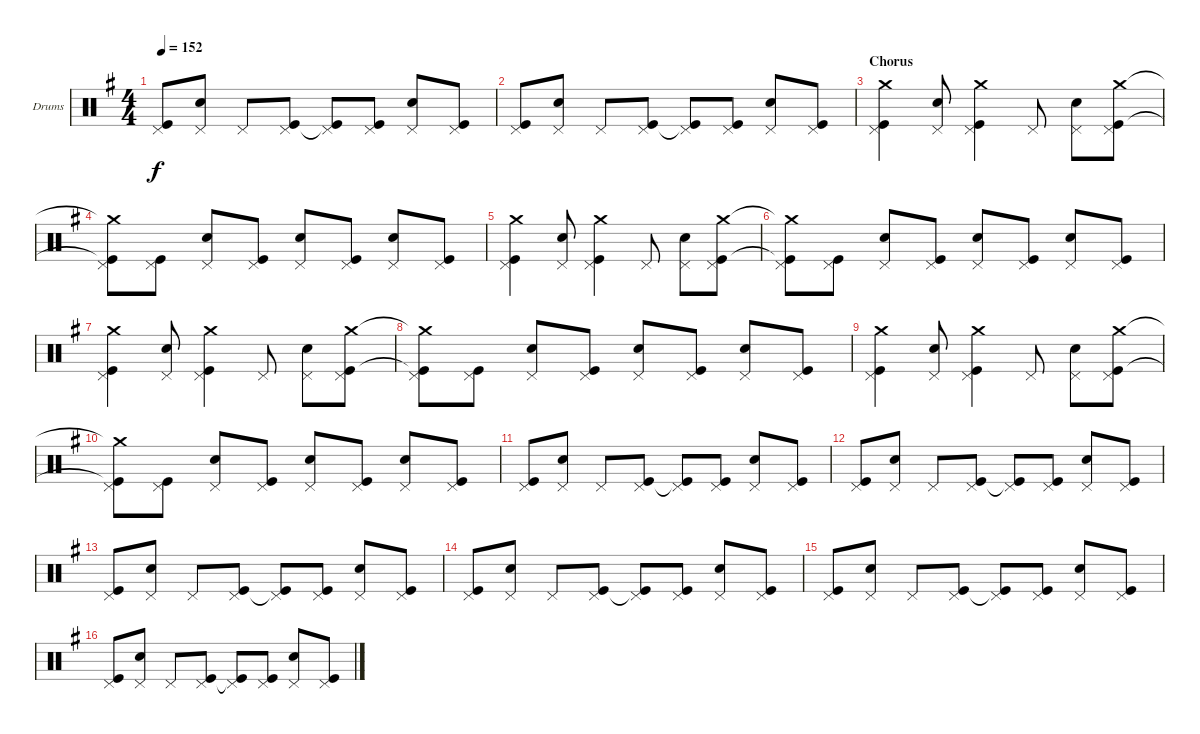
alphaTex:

\defaultSystemsLayout 4
\bracketExtendMode groupsimilarinstruments
\firstSystemTrackNameOrientation horizontal
\otherSystemsTrackNameOrientation horizontal
\track ("Drumkit" "Drums") {instrument percussion}
\staff {score}
\articulation defaults
\ts (4 4)
\tempo 152
\clef neutral
\scale
0.957125
\ks g
("Kick (hit)" "Pedal Hi-Hat (hit)").8{dy f} ("Snare (hit) 2" "Pedal Hi-Hat (hit)").8 "Pedal Hi-Hat (hit)".8 ("Kick (hit)" "Pedal Hi-Hat (hit)").8 ("Kick (hit)"{t} "Pedal Hi-Hat (hit)").8 ("Kick (hit)" "Pedal Hi-Hat (hit)").8 ("Snare (hit) 2" "Pedal Hi-Hat (hit)").8 ("Kick (hit)" "Pedal Hi-Hat (hit)").8 |
\scale
0.957125 ("Kick (hit)" "Pedal Hi-Hat (hit)").8 ("Snare (hit) 2" "Pedal Hi-Hat (hit)").8 "Pedal Hi-Hat (hit)".8 ("Kick (hit)" "Pedal Hi-Hat (hit)").8 ("Kick (hit)"{t} "Pedal Hi-Hat (hit)").8 ("Kick (hit)" "Pedal Hi-Hat (hit)").8 ("Snare (hit) 2" "Pedal Hi-Hat (hit)").8 ("Kick (hit)" "Pedal Hi-Hat (hit)").8 |
\section ("" "Chorus")
\scale
1.08575 ("Kick (hit)" "Crash medium (hit)" "Pedal Hi-Hat (hit)").4 ("Snare (hit) 2" "Pedal Hi-Hat (hit)").8 ("Kick (hit)" "Crash medium (hit)" "Pedal Hi-Hat (hit)").4 "Pedal Hi-Hat (hit)".8 ("Snare (hit) 2" "Pedal Hi-Hat (hit)").8 ("Kick (hit)" "Crash medium (hit)" "Pedal Hi-Hat (hit)").8 |
\scale
0.957125 ("Kick (hit)"{t} "Crash medium (hit)"{t} "Pedal Hi-Hat (hit)").8 ("Kick (hit)" "Pedal Hi-Hat (hit)").8 ("Snare (hit) 2" "Pedal Hi-Hat (hit)").8 ("Kick (hit)" "Pedal Hi-Hat (hit)").8 ("Snare (hit) 2" "Pedal Hi-Hat (hit)").8 ("Kick (hit)" "Pedal Hi-Hat (hit)").8 ("Snare (hit) 2" "Pedal Hi-Hat (hit)").8 ("Kick (hit)" "Pedal Hi-Hat (hit)").8 |
\scale
0.957125 ("Kick (hit)" "Crash medium (hit)" "Pedal Hi-Hat (hit)").4 ("Snare (hit) 2" "Pedal Hi-Hat (hit)").8 ("Kick (hit)" "Crash medium (hit)" "Pedal Hi-Hat (hit)").4 "Pedal Hi-Hat (hit)".8 ("Snare (hit) 2" "Pedal Hi-Hat (hit)").8 ("Kick (hit)" "Crash medium (hit)" "Pedal Hi-Hat (hit)").8 |
\scale
1.08575 ("Kick (hit)"{t} "Crash medium (hit)"{t} "Pedal Hi-Hat (hit)").8 ("Kick (hit)" "Pedal Hi-Hat (hit)").8 ("Snare (hit) 2" "Pedal Hi-Hat (hit)").8 ("Kick (hit)" "Pedal Hi-Hat (hit)").8 ("Snare (hit) 2" "Pedal Hi-Hat (hit)").8 ("Kick (hit)" "Pedal Hi-Hat (hit)").8 ("Snare (hit) 2" "Pedal Hi-Hat (hit)").8 ("Kick (hit)" "Pedal Hi-Hat (hit)").8 |
\scale
0.957125 ("Kick (hit)" "Crash medium (hit)" "Pedal Hi-Hat (hit)").4 ("Snare (hit) 2" "Pedal Hi-Hat (hit)").8 ("Kick (hit)" "Crash medium (hit)" "Pedal Hi-Hat (hit)").4 "Pedal Hi-Hat (hit)".8 ("Snare (hit) 2" "Pedal Hi-Hat (hit)").8 ("Kick (hit)" "Crash medium (hit)" "Pedal Hi-Hat (hit)").8 |
\scale
0.957125 ("Kick (hit)"{t} "Crash medium (hit)"{t} "Pedal Hi-Hat (hit)").8 ("Kick (hit)" "Pedal Hi-Hat (hit)").8 ("Snare (hit) 2" "Pedal Hi-Hat (hit)").8 ("Kick (hit)" "Pedal Hi-Hat (hit)").8 ("Snare (hit) 2" "Pedal Hi-Hat (hit)").8 ("Kick (hit)" "Pedal Hi-Hat (hit)").8 ("Snare (hit) 2" "Pedal Hi-Hat (hit)").8 ("Kick (hit)" "Pedal Hi-Hat (hit)").8 |
\scale
1.08575 ("Kick (hit)" "Crash medium (hit)" "Pedal Hi-Hat (hit)").4 ("Snare (hit) 2" "Pedal Hi-Hat (hit)").8 ("Kick (hit)" "Crash medium (hit)" "Pedal Hi-Hat (hit)").4 "Pedal Hi-Hat (hit)".8 ("Snare (hit) 2" "Pedal Hi-Hat (hit)").8 ("Kick (hit)" "Crash medium (hit)" "Pedal Hi-Hat (hit)").8 |
\scale
0.957125 ("Kick (hit)"{t} "Crash medium (hit)"{t} "Pedal Hi-Hat (hit)").8 ("Kick (hit)" "Pedal Hi-Hat (hit)").8 ("Snare (hit) 2" "Pedal Hi-Hat (hit)").8 ("Kick (hit)" "Pedal Hi-Hat (hit)").8 ("Snare (hit) 2" "Pedal Hi-Hat (hit)").8 ("Kick (hit)" "Pedal Hi-Hat (hit)").8 ("Snare (hit) 2" "Pedal Hi-Hat (hit)").8 ("Kick (hit)" "Pedal Hi-Hat (hit)").8 |
\scale
0.957125 ("Kick (hit)" "Pedal Hi-Hat (hit)").8 ("Snare (hit) 2" "Pedal Hi-Hat (hit)").8 "Pedal Hi-Hat (hit)".8 ("Kick (hit)" "Pedal Hi-Hat (hit)").8 ("Kick (hit)"{t} "Pedal Hi-Hat (hit)").8 ("Kick (hit)" "Pedal Hi-Hat (hit)").8 ("Snare (hit) 2" "Pedal Hi-Hat (hit)").8 ("Kick (hit)" "Pedal Hi-Hat (hit)").8 |
\scale
1.08575 ("Kick (hit)" "Pedal Hi-Hat (hit)").8 ("Snare (hit) 2" "Pedal Hi-Hat (hit)").8 "Pedal Hi-Hat (hit)".8 ("Kick (hit)" "Pedal Hi-Hat (hit)").8 ("Kick (hit)"{t} "Pedal Hi-Hat (hit)").8 ("Kick (hit)" "Pedal Hi-Hat (hit)").8 ("Snare (hit) 2" "Pedal Hi-Hat (hit)").8 ("Kick (hit)" "Pedal Hi-Hat (hit)").8 |
\scale
0.957125 ("Kick (hit)" "Pedal Hi-Hat (hit)").8 ("Snare (hit) 2" "Pedal Hi-Hat (hit)").8 "Pedal Hi-Hat (hit)".8 ("Kick (hit)" "Pedal Hi-Hat (hit)").8 ("Kick (hit)"{t} "Pedal Hi-Hat (hit)").8 ("Kick (hit)" "Pedal Hi-Hat (hit)").8 ("Snare (hit) 2" "Pedal Hi-Hat (hit)").8 ("Kick (hit)" "Pedal Hi-Hat (hit)").8 |
\scale
0.957125 ("Kick (hit)" "Pedal Hi-Hat (hit)").8 ("Snare (hit) 2" "Pedal Hi-Hat (hit)").8 "Pedal Hi-Hat (hit)".8 ("Kick (hit)" "Pedal Hi-Hat (hit)").8 ("Kick (hit)"{t} "Pedal Hi-Hat (hit)").8 ("Kick (hit)" "Pedal Hi-Hat (hit)").8 ("Snare (hit) 2" "Pedal Hi-Hat (hit)").8 ("Kick (hit)" "Pedal Hi-Hat (hit)").8 |
\scale
1.08575 ("Kick (hit)" "Pedal Hi-Hat (hit)").8 ("Snare (hit) 2" "Pedal Hi-Hat (hit)").8 "Pedal Hi-Hat (hit)".8 ("Kick (hit)" "Pedal Hi-Hat (hit)").8 ("Kick (hit)"{t} "Pedal Hi-Hat (hit)").8 ("Kick (hit)" "Pedal Hi-Hat (hit)").8 ("Snare (hit) 2" "Pedal Hi-Hat (hit)").8 ("Kick (hit)" "Pedal Hi-Hat (hit)").8 |
\scale
0.957125 ("Kick (hit)" "Pedal Hi-Hat (hit)").8 ("Snare (hit) 2" "Pedal Hi-Hat (hit)").8 "Pedal Hi-Hat (hit)".8 ("Kick (hit)" "Pedal Hi-Hat (hit)").8 ("Kick (hit)"{t} "Pedal Hi-Hat (hit)").8 ("Kick (hit)" "Pedal Hi-Hat (hit)").8 ("Snare (hit) 2" "Pedal Hi-Hat (hit)").8 ("Kick (hit)" "Pedal Hi-Hat (hit)").8
